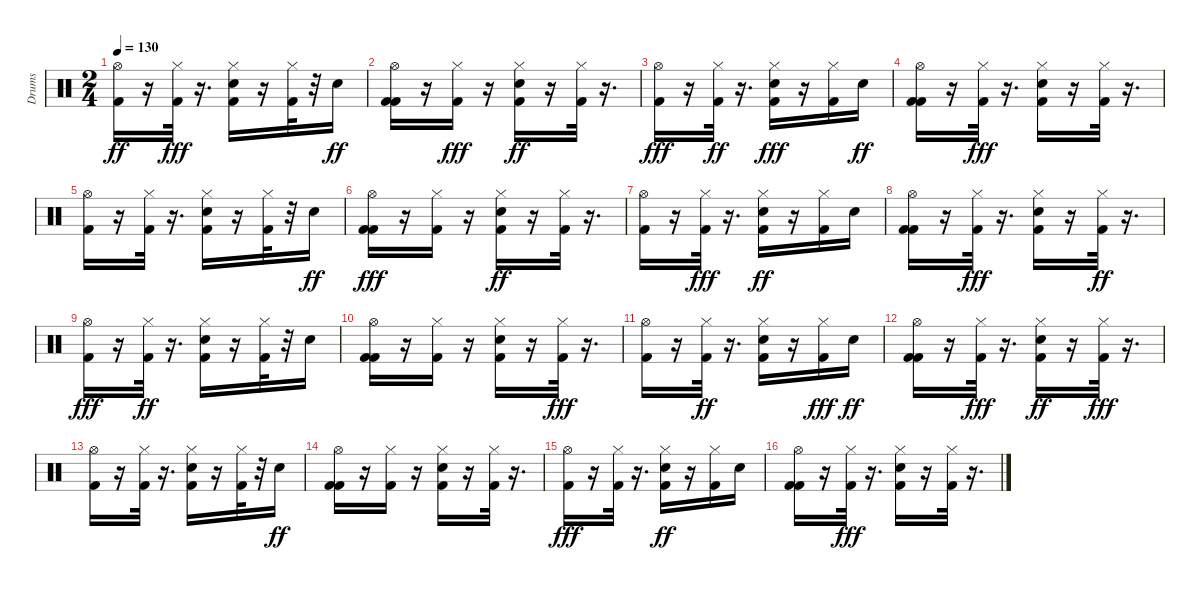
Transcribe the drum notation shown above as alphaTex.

\track ("Drums" "Drums") {solo instrument percussion}
\staff {score}
\articulation defaults
\ts (2 4)
\tempo 130
\clef neutral
\ks c
("Hi-Hat (open)" "Kick (hit) 2").16{dy ff} r.16 ("Kick (hit) 2" "Hi-Hat (closed)").32{dy fff} r.16{d} ("Kick (hit) 2" "Snare (hit) 2" "Hi-Hat (closed)").16 r.16 ("Kick (hit) 2" "Hi-Hat (closed)").32 r.32 "Snare (hit) 2".16{dy ff} |
("Hi-Hat (open)" "Kick (hit) 2" "Kick (hit) 2").16 r.16 ("Kick (hit) 2" "Hi-Hat (closed)").16{dy fff} r.16 ("Kick (hit) 2" "Hi-Hat (closed)" "Snare (hit) 2").16{dy ff} r.16 ("Hi-Hat (closed)" "Kick (hit) 2").32 r.16{d} |
("Kick (hit) 2" "Hi-Hat (open)").16{dy fff} r.16 ("Hi-Hat (closed)" "Kick (hit) 2").32{dy ff} r.16{d} ("Kick (hit) 2" "Snare (hit) 2" "Hi-Hat (closed)").16{dy fff} r.16 ("Kick (hit) 2" "Hi-Hat (closed)").16 "Snare (hit) 2".16{dy ff} |
("Kick (hit) 2" "Hi-Hat (open)" "Kick (hit) 2").16 r.16 ("Kick (hit) 2" "Hi-Hat (closed)").32{dy fff} r.16{d} ("Snare (hit) 2" "Kick (hit) 2" "Hi-Hat (closed)").16 r.16 ("Kick (hit) 2" "Hi-Hat (closed)").32 r.16{d} |
("Kick (hit) 2" "Hi-Hat (open)").16 r.16 ("Kick (hit) 2" "Hi-Hat (closed)").32 r.16{d} ("Snare (hit) 2" "Kick (hit) 2" "Hi-Hat (closed)").16 r.16 ("Kick (hit) 2" "Hi-Hat (closed)").32 r.32 "Snare (hit) 2".16{dy ff} |
("Kick (hit) 2" "Kick (hit) 2" "Hi-Hat (open)").16{dy fff} r.16 ("Kick (hit) 2" "Hi-Hat (closed)").16 r.16 ("Kick (hit) 2" "Hi-Hat (closed)" "Snare (hit) 2").16{dy ff} r.16 ("Hi-Hat (closed)" "Kick (hit) 2").32 r.16{d} |
("Hi-Hat (open)" "Kick (hit) 2").16 r.16 ("Kick (hit) 2" "Hi-Hat (closed)").32{dy fff} r.16{d} ("Kick (hit) 2" "Hi-Hat (closed)" "Snare (hit) 2").16{dy ff} r.16 ("Hi-Hat (closed)" "Kick (hit) 2").16 "Snare (hit) 2".16 |
("Hi-Hat (open)" "Kick (hit) 2" "Kick (hit) 2").16 r.16 ("Kick (hit) 2" "Hi-Hat (closed)").32{dy fff} r.16{d} ("Kick (hit) 2" "Snare (hit) 2" "Hi-Hat (closed)").16 r.16 ("Hi-Hat (closed)" "Kick (hit) 2").32{dy ff} r.16{d} |
("Kick (hit) 2" "Hi-Hat (open)").16{dy fff} r.16 ("Hi-Hat (closed)" "Kick (hit) 2").32{dy ff} r.16{d} ("Snare (hit) 2" "Hi-Hat (closed)" "Kick (hit) 2").16 r.16 ("Hi-Hat (closed)" "Kick (hit) 2").32 r.32 "Snare (hit) 2".16 |
("Kick (hit) 2" "Hi-Hat (open)" "Kick (hit) 2").16 r.16 ("Hi-Hat (closed)" "Kick (hit) 2").16 r.16 ("Hi-Hat (closed)" "Snare (hit) 2" "Kick (hit) 2").16 r.16 ("Kick (hit) 2" "Hi-Hat (closed)").32{dy fff} r.16{d} |
("Kick (hit) 2" "Hi-Hat (open)").16 r.16 ("Hi-Hat (closed)" "Kick (hit) 2").32{dy ff} r.16{d} ("Hi-Hat (closed)" "Kick (hit) 2" "Snare (hit) 2").16 r.16 ("Kick (hit) 2" "Hi-Hat (closed)").16{dy fff} "Snare (hit) 2".16{dy ff} |
("Hi-Hat (open)" "Kick (hit) 2" "Kick (hit) 2").16 r.16 ("Kick (hit) 2" "Hi-Hat (closed)").32{dy fff} r.16{d} ("Hi-Hat (closed)" "Kick (hit) 2" "Snare (hit) 2").16{dy ff} r.16 ("Kick (hit) 2" "Hi-Hat (closed)").32{dy fff} r.16{d} |
("Kick (hit) 2" "Hi-Hat (open)").16 r.16 ("Kick (hit) 2" "Hi-Hat (closed)").32 r.16{d} ("Snare (hit) 2" "Kick (hit) 2" "Hi-Hat (closed)").16 r.16 ("Kick (hit) 2" "Hi-Hat (closed)").32 r.32 "Snare (hit) 2".16{dy ff} |
("Kick (hit) 2" "Hi-Hat (open)" "Kick (hit) 2").16 r.16 ("Hi-Hat (closed)" "Kick (hit) 2").16 r.16 ("Hi-Hat (closed)" "Snare (hit) 2" "Kick (hit) 2").16 r.16 ("Hi-Hat (closed)" "Kick (hit) 2").32 r.16{d} |
("Kick (hit) 2" "Hi-Hat (open)").16{dy fff} r.16 ("Kick (hit) 2" "Hi-Hat (closed)").32 r.16{d} ("Snare (hit) 2" "Hi-Hat (closed)" "Kick (hit) 2").16{dy ff} r.16 ("Hi-Hat (closed)" "Kick (hit) 2").16 "Snare (hit) 2".16 |
("Kick (hit) 2" "Hi-Hat (open)" "Kick (hit) 2").16 r.16 ("Kick (hit) 2" "Hi-Hat (closed)").32{dy fff} r.16{d} ("Snare (hit) 2" "Kick (hit) 2" "Hi-Hat (closed)").16 r.16 ("Kick (hit) 2" "Hi-Hat (closed)").32 r.16{d}
